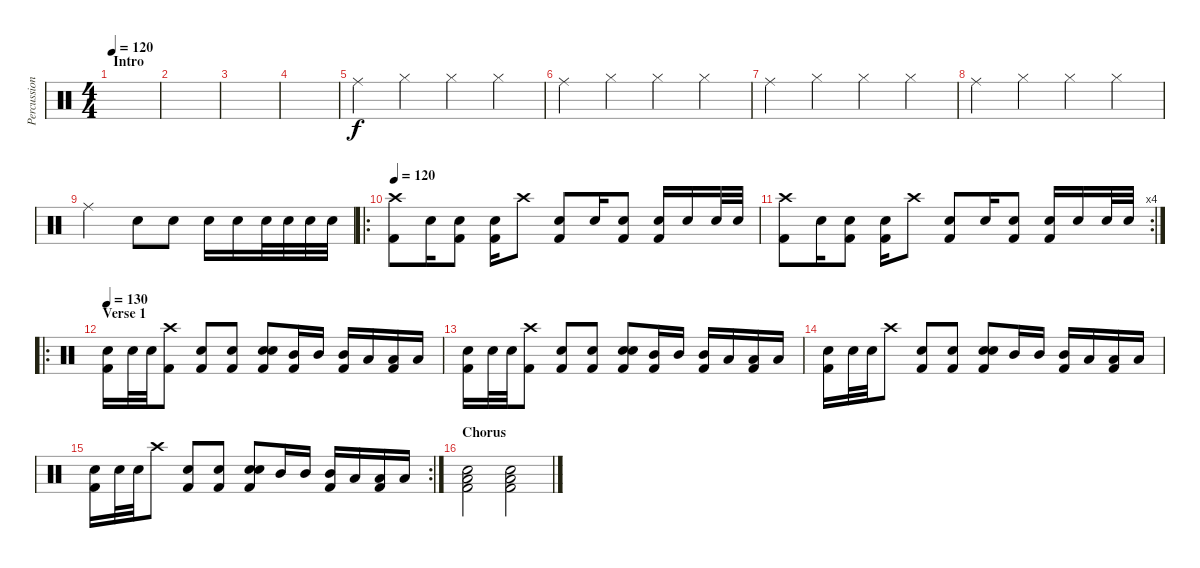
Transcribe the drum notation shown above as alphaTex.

\track ("Percussion" "Percussion") {instrument percussion}
\staff {score}
\articulation defaults
\ts (4 4)
\section ("" "Intro")
\tempo 120
\tempo 125
\tempo 120
\clef neutral
\ks c
|
|
|
|
"Ride (middle)".4 "Hi-Hat (closed)".4 "Hi-Hat (closed)".4 "Hi-Hat (closed)".4 |
"Ride (middle)".4 "Hi-Hat (closed)".4 "Hi-Hat (closed)".4 "Hi-Hat (closed)".4 |
"Ride (middle)".4 "Hi-Hat (closed)".4 "Hi-Hat (closed)".4 "Hi-Hat (closed)".4 |
"Ride (middle)".4 "Hi-Hat (closed)".4 "Hi-Hat (closed)".4 "Hi-Hat (closed)".4 |
"Ride (middle)".2 "Electric Snare (hit)".8 "Electric Snare (hit)".8 "Electric Snare (hit)".16 "Electric Snare (hit)".16 "Electric Snare (hit)".32 "Electric Snare (hit)".32 "Electric Snare (hit)".32 "Electric Snare (hit)".32 |
\ro
\tempo 120
("Crash high (hit)" "Kick (hit) 2").8 "Electric Snare (hit)".16 ("Electric Snare (hit)" "Kick (hit) 2").8 ("Electric Snare (hit)" "Kick (hit) 2").16 "Crash high (hit)".8 ("Electric Snare (hit)" "Kick (hit) 2").8 "Electric Snare (hit)".16 ("Electric Snare (hit)" "Kick (hit) 2").8 ("Electric Snare (hit)" "Kick (hit) 2").16 "Electric Snare (hit)".16 "Electric Snare (hit)".32 "Electric Snare (hit)".32 |
\rc 4
("Crash high (hit)" "Kick (hit) 2").8 "Electric Snare (hit)".16 ("Electric Snare (hit)" "Kick (hit) 2").8 ("Electric Snare (hit)" "Kick (hit) 2").16 "Crash high (hit)".8 ("Electric Snare (hit)" "Kick (hit) 2").8 "Electric Snare (hit)".16 ("Electric Snare (hit)" "Kick (hit) 2").8 ("Electric Snare (hit)" "Kick (hit) 2").16 "Electric Snare (hit)".16 "Electric Snare (hit)".32 "Electric Snare (hit)".32 |
\ro
\section ("" "Verse 1")
\tempo 130
("Electric Snare (hit)" "Kick (hit) 2").16 "Electric Snare (hit)".32 "Electric Snare (hit)".32 ("Crash high (hit)" "Kick (hit) 2").8 ("Electric Snare (hit)" "Kick (hit) 2").8 ("Electric Snare (hit)" "Kick (hit) 2").8 ("Electric Snare (hit)" "Electric Snare (hit)" "Kick (hit) 2").8 ("Mid Tom (hit)" "Kick (hit) 2").16 "Mid Tom (hit)".16 ("Mid Tom (hit)" "Kick (hit) 2").16 "Low Tom (hit)".16 ("Low Tom (hit)" "Kick (hit) 2").16 "Low Tom (hit)".16 |
("Electric Snare (hit)" "Kick (hit) 2").16 "Electric Snare (hit)".32 "Electric Snare (hit)".32 ("Crash high (hit)" "Kick (hit) 2").8 ("Electric Snare (hit)" "Kick (hit) 2").8 ("Electric Snare (hit)" "Kick (hit) 2").8 ("Electric Snare (hit)" "Electric Snare (hit)" "Kick (hit) 2").8 ("Mid Tom (hit)" "Kick (hit) 2").16 "Mid Tom (hit)".16 ("Mid Tom (hit)" "Kick (hit) 2").16 "Low Tom (hit)".16 ("Low Tom (hit)" "Kick (hit) 2").16 "Low Tom (hit)".16 |
("Electric Snare (hit)" "Kick (hit) 2").16 "Electric Snare (hit)".32 "Electric Snare (hit)".32 "Crash high (hit)".8 ("Electric Snare (hit)" "Kick (hit) 2").8 ("Electric Snare (hit)" "Kick (hit) 2").8 ("Electric Snare (hit)" "Electric Snare (hit)" "Kick (hit) 2").8 "Mid Tom (hit)".16 "Mid Tom (hit)".16 ("Mid Tom (hit)" "Kick (hit) 2").16 "Low Tom (hit)".16 ("Low Tom (hit)" "Kick (hit) 2").16 "Low Tom (hit)".16 |
\rc 2
("Electric Snare (hit)" "Kick (hit) 2").16 "Electric Snare (hit)".32 "Electric Snare (hit)".32 "Crash high (hit)".8 ("Electric Snare (hit)" "Kick (hit) 2").8 ("Electric Snare (hit)" "Kick (hit) 2").8 ("Electric Snare (hit)" "Electric Snare (hit)" "Kick (hit) 2").8 "Mid Tom (hit)".16 "Mid Tom (hit)".16 ("Mid Tom (hit)" "Kick (hit) 2").16 "Low Tom (hit)".16 ("Low Tom (hit)" "Kick (hit) 2").16 "Low Tom (hit)".16 |
\section ("" "Chorus")
("Low Tom (hit)" "Electric Snare (hit)" "Kick (hit) 2").2 ("Low Tom (hit)" "Electric Snare (hit)" "Kick (hit) 2").2
